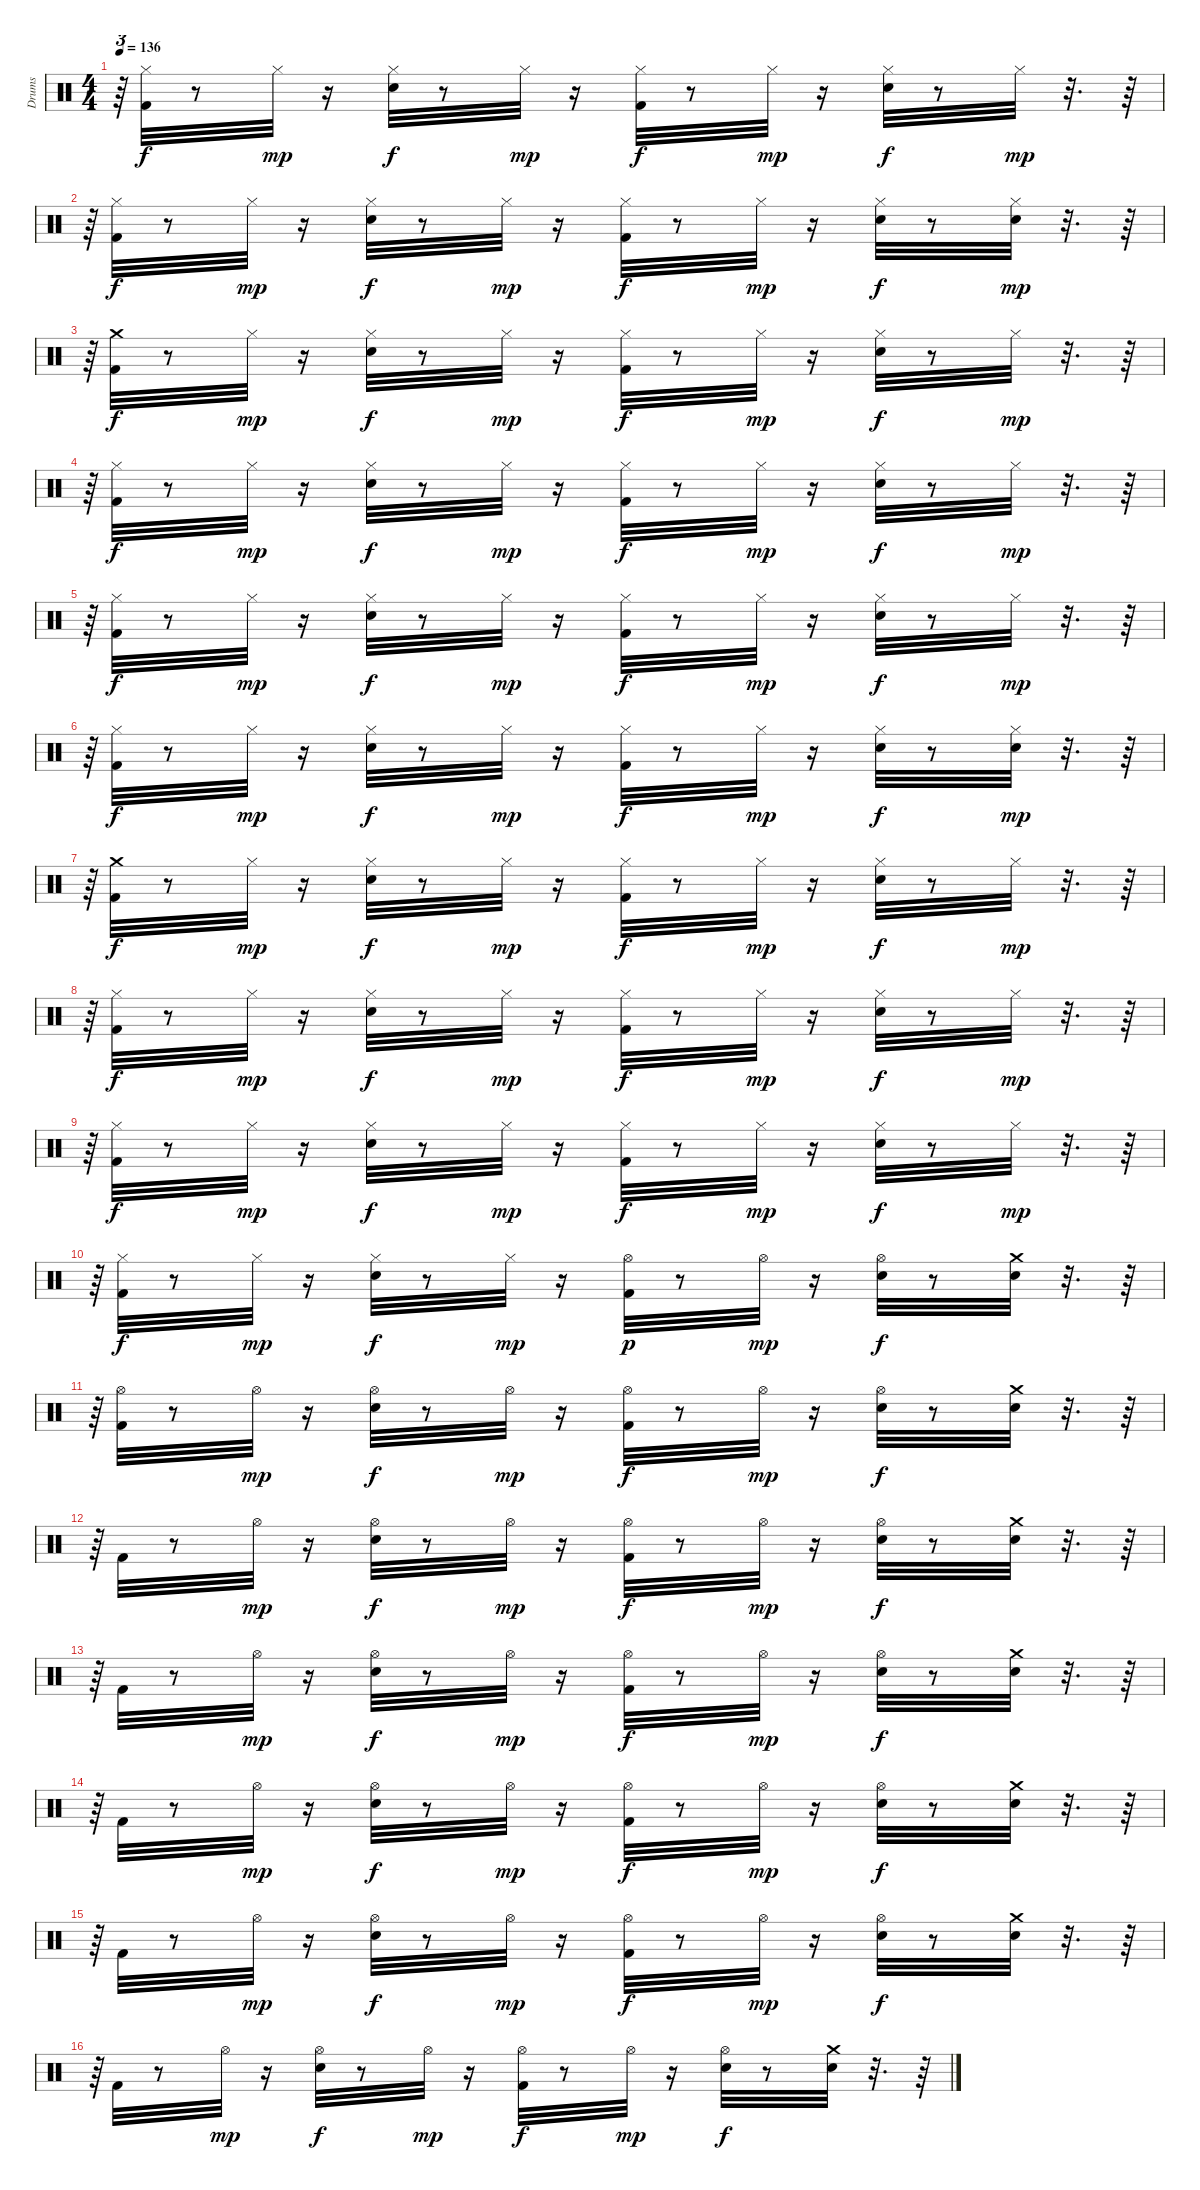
\track ("Drums" "Drums") {instrument percussion}
\staff {score}
\articulation defaults
\ts (4 4)
\tempo 136
\clef neutral
\ks c
r.64{tu (3 2) dy mp} ("Kick (hit) 2" "Hi-Hat (closed)").32{dy f} r.8 "Hi-Hat (closed)".32{dy mp} r.16 ("Hi-Hat (closed)" "Electric Snare (hit)").32{dy f} r.8 "Hi-Hat (closed)".32{dy mp} r.16 ("Hi-Hat (closed)" "Kick (hit) 2").32{dy f} r.8 "Hi-Hat (closed)".32{dy mp} r.16 ("Hi-Hat (closed)" "Electric Snare (hit)").32{dy f} r.8 "Hi-Hat (closed)".32{dy mp} r.32{d} r.64 |
r.64{tu (3 2)} ("Kick (hit) 2" "Hi-Hat (closed)").32{dy f} r.8 "Hi-Hat (closed)".32{dy mp} r.16 ("Hi-Hat (closed)" "Electric Snare (hit)").32{dy f} r.8 "Hi-Hat (closed)".32{dy mp} r.16 ("Hi-Hat (closed)" "Kick (hit) 2").32{dy f} r.8 "Hi-Hat (closed)".32{dy mp} r.16 ("Hi-Hat (closed)" "Electric Snare (hit)").32{dy f} r.8 ("Hi-Hat (closed)" "Electric Snare (hit)").32{dy mp} r.32{d} r.64 |
r.64{tu (3 2)} ("Crash medium (hit)" "Kick (hit) 2").32{dy f} r.8 "Hi-Hat (closed)".32{dy mp} r.16 ("Hi-Hat (closed)" "Electric Snare (hit)").32{dy f} r.8 "Hi-Hat (closed)".32{dy mp} r.16 ("Hi-Hat (closed)" "Kick (hit) 2").32{dy f} r.8 "Hi-Hat (closed)".32{dy mp} r.16 ("Hi-Hat (closed)" "Electric Snare (hit)").32{dy f} r.8 "Hi-Hat (closed)".32{dy mp} r.32{d} r.64 |
r.64{tu (3 2)} ("Kick (hit) 2" "Hi-Hat (closed)").32{dy f} r.8 "Hi-Hat (closed)".32{dy mp} r.16 ("Hi-Hat (closed)" "Electric Snare (hit)").32{dy f} r.8 "Hi-Hat (closed)".32{dy mp} r.16 ("Hi-Hat (closed)" "Kick (hit) 2").32{dy f} r.8 "Hi-Hat (closed)".32{dy mp} r.16 ("Hi-Hat (closed)" "Electric Snare (hit)").32{dy f} r.8 "Hi-Hat (closed)".32{dy mp} r.32{d} r.64 |
r.64{tu (3 2)} ("Kick (hit) 2" "Hi-Hat (closed)").32{dy f} r.8 "Hi-Hat (closed)".32{dy mp} r.16 ("Hi-Hat (closed)" "Electric Snare (hit)").32{dy f} r.8 "Hi-Hat (closed)".32{dy mp} r.16 ("Hi-Hat (closed)" "Kick (hit) 2").32{dy f} r.8 "Hi-Hat (closed)".32{dy mp} r.16 ("Hi-Hat (closed)" "Electric Snare (hit)").32{dy f} r.8 "Hi-Hat (closed)".32{dy mp} r.32{d} r.64 |
r.64{tu (3 2)} ("Kick (hit) 2" "Hi-Hat (closed)").32{dy f} r.8 "Hi-Hat (closed)".32{dy mp} r.16 ("Hi-Hat (closed)" "Electric Snare (hit)").32{dy f} r.8 "Hi-Hat (closed)".32{dy mp} r.16 ("Hi-Hat (closed)" "Kick (hit) 2").32{dy f} r.8 "Hi-Hat (closed)".32{dy mp} r.16 ("Hi-Hat (closed)" "Electric Snare (hit)").32{dy f} r.8 ("Hi-Hat (closed)" "Electric Snare (hit)").32{dy mp} r.32{d} r.64 |
r.64{tu (3 2)} ("Crash medium (hit)" "Kick (hit) 2").32{dy f} r.8 "Hi-Hat (closed)".32{dy mp} r.16 ("Hi-Hat (closed)" "Electric Snare (hit)").32{dy f} r.8 "Hi-Hat (closed)".32{dy mp} r.16 ("Hi-Hat (closed)" "Kick (hit) 2").32{dy f} r.8 "Hi-Hat (closed)".32{dy mp} r.16 ("Hi-Hat (closed)" "Electric Snare (hit)").32{dy f} r.8 "Hi-Hat (closed)".32{dy mp} r.32{d} r.64 |
r.64{tu (3 2)} ("Kick (hit) 2" "Hi-Hat (closed)").32{dy f} r.8 "Hi-Hat (closed)".32{dy mp} r.16 ("Hi-Hat (closed)" "Electric Snare (hit)").32{dy f} r.8 "Hi-Hat (closed)".32{dy mp} r.16 ("Hi-Hat (closed)" "Kick (hit) 2").32{dy f} r.8 "Hi-Hat (closed)".32{dy mp} r.16 ("Hi-Hat (closed)" "Electric Snare (hit)").32{dy f} r.8 "Hi-Hat (closed)".32{dy mp} r.32{d} r.64 |
r.64{tu (3 2)} ("Kick (hit) 2" "Hi-Hat (closed)").32{dy f} r.8 "Hi-Hat (closed)".32{dy mp} r.16 ("Hi-Hat (closed)" "Electric Snare (hit)").32{dy f} r.8 "Hi-Hat (closed)".32{dy mp} r.16 ("Hi-Hat (closed)" "Kick (hit) 2").32{dy f} r.8 "Hi-Hat (closed)".32{dy mp} r.16 ("Hi-Hat (closed)" "Electric Snare (hit)").32{dy f} r.8 "Hi-Hat (closed)".32{dy mp} r.32{d} r.64 |
r.64{tu (3 2)} ("Kick (hit) 2" "Hi-Hat (closed)").32{dy f} r.8 "Hi-Hat (closed)".32{dy mp} r.16 ("Hi-Hat (closed)" "Electric Snare (hit)").32{dy f} r.8 "Hi-Hat (closed)".32{dy mp} r.16 ("Hi-Hat (open)" "Kick (hit) 2").32{dy p} r.8 "Hi-Hat (open)".32{dy mp} r.16 ("Hi-Hat (open)" "Electric Snare (hit)").32{dy f} r.8 ("Crash medium (hit)" "Electric Snare (hit)").32 r.32{d} r.64 |
r.64{tu (3 2)} ("Hi-Hat (open)" "Kick (hit) 2").32 r.8 "Hi-Hat (open)".32{dy mp} r.16 ("Hi-Hat (open)" "Electric Snare (hit)").32{dy f} r.8 "Hi-Hat (open)".32{dy mp} r.16 ("Hi-Hat (open)" "Kick (hit) 2").32{dy f} r.8 "Hi-Hat (open)".32{dy mp} r.16 ("Hi-Hat (open)" "Electric Snare (hit)").32{dy f} r.8 ("Crash medium (hit)" "Electric Snare (hit)").32 r.32{d} r.64 |
r.64{tu (3 2)} "Kick (hit) 2".32 r.8 "Hi-Hat (open)".32{dy mp} r.16 ("Hi-Hat (open)" "Electric Snare (hit)").32{dy f} r.8 "Hi-Hat (open)".32{dy mp} r.16 ("Hi-Hat (open)" "Kick (hit) 2").32{dy f} r.8 "Hi-Hat (open)".32{dy mp} r.16 ("Hi-Hat (open)" "Electric Snare (hit)").32{dy f} r.8 ("Crash medium (hit)" "Electric Snare (hit)").32 r.32{d} r.64 |
r.64{tu (3 2)} "Kick (hit) 2".32 r.8 "Hi-Hat (open)".32{dy mp} r.16 ("Hi-Hat (open)" "Electric Snare (hit)").32{dy f} r.8 "Hi-Hat (open)".32{dy mp} r.16 ("Hi-Hat (open)" "Kick (hit) 2").32{dy f} r.8 "Hi-Hat (open)".32{dy mp} r.16 ("Hi-Hat (open)" "Electric Snare (hit)").32{dy f} r.8 ("Crash medium (hit)" "Electric Snare (hit)").32 r.32{d} r.64 |
r.64{tu (3 2)} "Kick (hit) 2".32 r.8 "Hi-Hat (open)".32{dy mp} r.16 ("Hi-Hat (open)" "Electric Snare (hit)").32{dy f} r.8 "Hi-Hat (open)".32{dy mp} r.16 ("Hi-Hat (open)" "Kick (hit) 2").32{dy f} r.8 "Hi-Hat (open)".32{dy mp} r.16 ("Hi-Hat (open)" "Electric Snare (hit)").32{dy f} r.8 ("Crash medium (hit)" "Electric Snare (hit)").32 r.32{d} r.64 |
r.64{tu (3 2)} "Kick (hit) 2".32 r.8 "Hi-Hat (open)".32{dy mp} r.16 ("Hi-Hat (open)" "Electric Snare (hit)").32{dy f} r.8 "Hi-Hat (open)".32{dy mp} r.16 ("Hi-Hat (open)" "Kick (hit) 2").32{dy f} r.8 "Hi-Hat (open)".32{dy mp} r.16 ("Hi-Hat (open)" "Electric Snare (hit)").32{dy f} r.8 ("Crash medium (hit)" "Electric Snare (hit)").32 r.32{d} r.64 |
r.64{tu (3 2)} "Kick (hit) 2".32 r.8 "Hi-Hat (open)".32{dy mp} r.16 ("Hi-Hat (open)" "Electric Snare (hit)").32{dy f} r.8 "Hi-Hat (open)".32{dy mp} r.16 ("Hi-Hat (open)" "Kick (hit) 2").32{dy f} r.8 "Hi-Hat (open)".32{dy mp} r.16 ("Hi-Hat (open)" "Electric Snare (hit)").32{dy f} r.8 ("Crash medium (hit)" "Electric Snare (hit)").32 r.32{d} r.64
